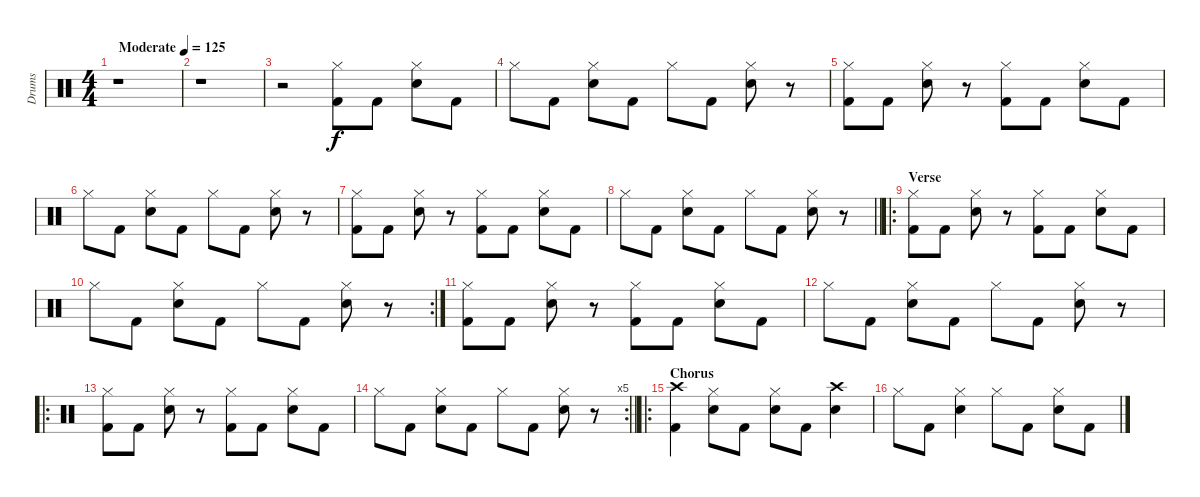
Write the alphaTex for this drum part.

\track ("Drums" "Drums") {instrument percussion}
\staff {score}
\articulation defaults
\ts (4 4)
\tempo (125 "Moderate")
\clef neutral
\ks c
r.1{dy f} |
r.1 |
r.2 ("Hi-Hat (closed)" "Kick (hit) 2").8 "Kick (hit) 2".8 ("Hi-Hat (closed)" "Snare (hit) 2").8 "Kick (hit) 2".8 |
"Hi-Hat (closed)".8 "Kick (hit) 2".8 ("Hi-Hat (closed)" "Snare (hit) 2").8 "Kick (hit) 2".8 "Hi-Hat (closed)".8 "Kick (hit) 2".8 ("Hi-Hat (closed)" "Snare (hit) 2").8 r.8 |
("Hi-Hat (closed)" "Kick (hit) 2").8 "Kick (hit) 2".8 ("Hi-Hat (closed)" "Snare (hit) 2").8 r.8 ("Hi-Hat (closed)" "Kick (hit) 2").8 "Kick (hit) 2".8 ("Hi-Hat (closed)" "Snare (hit) 2").8 "Kick (hit) 2".8 |
"Hi-Hat (closed)".8 "Kick (hit) 2".8 ("Hi-Hat (closed)" "Snare (hit) 2").8 "Kick (hit) 2".8 "Hi-Hat (closed)".8 "Kick (hit) 2".8 ("Hi-Hat (closed)" "Snare (hit) 2").8 r.8 |
("Hi-Hat (closed)" "Kick (hit) 2").8 "Kick (hit) 2".8 ("Hi-Hat (closed)" "Snare (hit) 2").8 r.8 ("Hi-Hat (closed)" "Kick (hit) 2").8 "Kick (hit) 2".8 ("Hi-Hat (closed)" "Snare (hit) 2").8 "Kick (hit) 2".8 |
\barLineRight lightlight "Hi-Hat (closed)".8 "Kick (hit) 2".8
("Hi-Hat (closed)" "Snare (hit) 2").8 "Kick (hit) 2".8 "Hi-Hat (closed)".8 "Kick (hit) 2".8 ("Hi-Hat (closed)" "Snare (hit) 2").8 r.8 |
\ro
\section ("" "Verse")
("Hi-Hat (closed)" "Kick (hit) 2").8 "Kick (hit) 2".8 ("Hi-Hat (closed)" "Snare (hit) 2").8 r.8 ("Hi-Hat (closed)" "Kick (hit) 2").8 "Kick (hit) 2".8 ("Hi-Hat (closed)" "Snare (hit) 2").8 "Kick (hit) 2".8 |
\rc 2 "Hi-Hat (closed)".8 "Kick (hit) 2".8
("Hi-Hat (closed)" "Snare (hit) 2").8 "Kick (hit) 2".8 "Hi-Hat (closed)".8 "Kick (hit) 2".8 ("Hi-Hat (closed)" "Snare (hit) 2").8 r.8 |
("Hi-Hat (closed)" "Kick (hit) 2").8 "Kick (hit) 2".8 ("Hi-Hat (closed)" "Snare (hit) 2").8 r.8 ("Hi-Hat (closed)" "Kick (hit) 2").8 "Kick (hit) 2".8 ("Hi-Hat (closed)" "Snare (hit) 2").8 "Kick (hit) 2".8 |
"Hi-Hat (closed)".8 "Kick (hit) 2".8 ("Hi-Hat (closed)" "Snare (hit) 2").8 "Kick (hit) 2".8 "Hi-Hat (closed)".8 "Kick (hit) 2".8 ("Hi-Hat (closed)" "Snare (hit) 2").8 r.8 |
\ro
("Hi-Hat (closed)" "Kick (hit) 2").8 "Kick (hit) 2".8 ("Hi-Hat (closed)" "Snare (hit) 2").8 r.8 ("Hi-Hat (closed)" "Kick (hit) 2").8 "Kick (hit) 2".8 ("Hi-Hat (closed)" "Snare (hit) 2").8 "Kick (hit) 2".8 |
\rc 5
\barLineRight lightlight "Hi-Hat (closed)".8 "Kick (hit) 2".8
("Hi-Hat (closed)" "Snare (hit) 2").8 "Kick (hit) 2".8 "Hi-Hat (closed)".8 "Kick (hit) 2".8 ("Hi-Hat (closed)" "Snare (hit) 2").8 r.8 |
\ro
\section ("" "Chorus")
("Crash high (hit)" "Kick (hit) 2").4 ("Hi-Hat (closed)" "Snare (hit) 2").8 "Kick (hit) 2".8 ("Hi-Hat (closed)" "Snare (hit) 2").8 "Kick (hit) 2".8 ("Crash high (hit)" "Snare (hit) 2").4 |
"Hi-Hat (closed)".8 "Kick (hit) 2".8 ("Hi-Hat (closed)" "Snare (hit) 2").4 "Hi-Hat (closed)".8 "Kick (hit) 2".8 ("Hi-Hat (closed)" "Snare (hit) 2").8 "Kick (hit) 2".8
